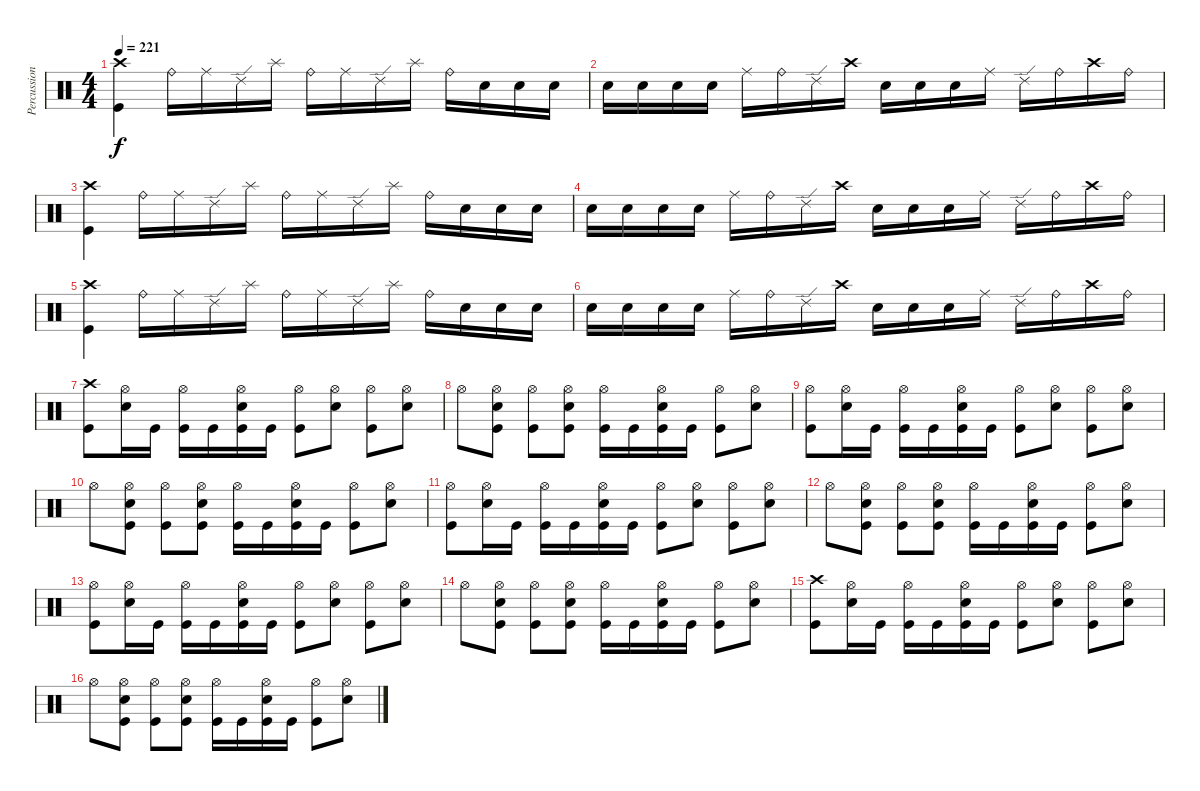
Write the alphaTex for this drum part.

\track ("Percussion" "Percussion") {instrument percussion}
\staff {score}
\articulation defaults
\ts (4 4)
\tempo 221
\clef neutral
\ks c
("Crash high (hit)" "Kick (hit)").4{dy f} "Ride (bell)".16 "Ride (middle)".16 "Ride (edge) 2".16 "Splash (hit)".16 "Ride (bell)".16 "Ride (middle)".16 "Ride (edge) 2".16 "Splash (hit)".16 "Ride (bell)".16 "Electric Snare (hit)".16 "Electric Snare (hit)".16 "Electric Snare (hit)".16 |
"Electric Snare (hit)".16 "Electric Snare (hit)".16 "Electric Snare (hit)".16 "Electric Snare (hit)".16 "Ride (middle)".16 "Ride (bell)".16 "Ride (edge) 2".16 "Crash high (hit)".16 "Electric Snare (hit)".16 "Electric Snare (hit)".16 "Electric Snare (hit)".16 "Ride (middle)".16 "Ride (edge) 2".16 "Ride (bell)".16 "Crash high (hit)".16 "Ride (bell)".16 |
("Crash high (hit)" "Kick (hit)").4 "Ride (bell)".16 "Ride (middle)".16 "Ride (edge) 2".16 "Splash (hit)".16 "Ride (bell)".16 "Ride (middle)".16 "Ride (edge) 2".16 "Splash (hit)".16 "Ride (bell)".16 "Electric Snare (hit)".16 "Electric Snare (hit)".16 "Electric Snare (hit)".16 |
"Electric Snare (hit)".16 "Electric Snare (hit)".16 "Electric Snare (hit)".16 "Electric Snare (hit)".16 "Ride (middle)".16 "Ride (bell)".16 "Ride (edge) 2".16 "Crash high (hit)".16 "Electric Snare (hit)".16 "Electric Snare (hit)".16 "Electric Snare (hit)".16 "Ride (middle)".16 "Ride (edge) 2".16 "Ride (bell)".16 "Crash high (hit)".16 "Ride (bell)".16 |
("Crash high (hit)" "Kick (hit)").4 "Ride (bell)".16 "Ride (middle)".16 "Ride (edge) 2".16 "Splash (hit)".16 "Ride (bell)".16 "Ride (middle)".16 "Ride (edge) 2".16 "Splash (hit)".16 "Ride (bell)".16 "Electric Snare (hit)".16 "Electric Snare (hit)".16 "Electric Snare (hit)".16 |
"Electric Snare (hit)".16 "Electric Snare (hit)".16 "Electric Snare (hit)".16 "Electric Snare (hit)".16 "Ride (middle)".16 "Ride (bell)".16 "Ride (edge) 2".16 "Crash high (hit)".16 "Electric Snare (hit)".16 "Electric Snare (hit)".16 "Electric Snare (hit)".16 "Ride (middle)".16 "Ride (edge) 2".16 "Ride (bell)".16 "Crash high (hit)".16 "Ride (bell)".16 |
("Crash high (hit)" "Kick (hit)").8 ("Hi-Hat (open)" "Electric Snare (hit)").16 "Kick (hit)".16 ("Hi-Hat (open)" "Kick (hit)").16 "Kick (hit)".16 ("Hi-Hat (open)" "Electric Snare (hit)" "Kick (hit)").16 "Kick (hit)".16 ("Hi-Hat (open)" "Kick (hit)").8 ("Hi-Hat (open)" "Electric Snare (hit)").8 ("Hi-Hat (open)" "Kick (hit)").8 ("Hi-Hat (open)" "Electric Snare (hit)").8 |
"Hi-Hat (open)".8 ("Hi-Hat (open)" "Electric Snare (hit)" "Kick (hit)").8 ("Hi-Hat (open)" "Kick (hit)").8 ("Hi-Hat (open)" "Electric Snare (hit)" "Kick (hit)").8 ("Hi-Hat (open)" "Kick (hit)").16 "Kick (hit)".16 ("Hi-Hat (open)" "Electric Snare (hit)" "Kick (hit)").16 "Kick (hit)".16 ("Hi-Hat (open)" "Kick (hit)").8 ("Hi-Hat (open)" "Electric Snare (hit)").8 |
("Hi-Hat (open)" "Kick (hit)").8 ("Hi-Hat (open)" "Electric Snare (hit)").16 "Kick (hit)".16 ("Hi-Hat (open)" "Kick (hit)").16 "Kick (hit)".16 ("Hi-Hat (open)" "Electric Snare (hit)" "Kick (hit)").16 "Kick (hit)".16 ("Hi-Hat (open)" "Kick (hit)").8 ("Hi-Hat (open)" "Electric Snare (hit)").8 ("Hi-Hat (open)" "Kick (hit)").8 ("Hi-Hat (open)" "Electric Snare (hit)").8 |
"Hi-Hat (open)".8 ("Hi-Hat (open)" "Electric Snare (hit)" "Kick (hit)").8 ("Hi-Hat (open)" "Kick (hit)").8 ("Hi-Hat (open)" "Electric Snare (hit)" "Kick (hit)").8 ("Hi-Hat (open)" "Kick (hit)").16 "Kick (hit)".16 ("Hi-Hat (open)" "Electric Snare (hit)" "Kick (hit)").16 "Kick (hit)".16 ("Hi-Hat (open)" "Kick (hit)").8 ("Hi-Hat (open)" "Electric Snare (hit)").8 |
("Hi-Hat (open)" "Kick (hit)").8 ("Hi-Hat (open)" "Electric Snare (hit)").16 "Kick (hit)".16 ("Hi-Hat (open)" "Kick (hit)").16 "Kick (hit)".16 ("Hi-Hat (open)" "Electric Snare (hit)" "Kick (hit)").16 "Kick (hit)".16 ("Hi-Hat (open)" "Kick (hit)").8 ("Hi-Hat (open)" "Electric Snare (hit)").8 ("Hi-Hat (open)" "Kick (hit)").8 ("Hi-Hat (open)" "Electric Snare (hit)").8 |
"Hi-Hat (open)".8 ("Hi-Hat (open)" "Electric Snare (hit)" "Kick (hit)").8 ("Hi-Hat (open)" "Kick (hit)").8 ("Hi-Hat (open)" "Electric Snare (hit)" "Kick (hit)").8 ("Hi-Hat (open)" "Kick (hit)").16 "Kick (hit)".16 ("Hi-Hat (open)" "Electric Snare (hit)" "Kick (hit)").16 "Kick (hit)".16 ("Hi-Hat (open)" "Kick (hit)").8 ("Hi-Hat (open)" "Electric Snare (hit)").8 |
("Hi-Hat (open)" "Kick (hit)").8 ("Hi-Hat (open)" "Electric Snare (hit)").16 "Kick (hit)".16 ("Hi-Hat (open)" "Kick (hit)").16 "Kick (hit)".16 ("Hi-Hat (open)" "Electric Snare (hit)" "Kick (hit)").16 "Kick (hit)".16 ("Hi-Hat (open)" "Kick (hit)").8 ("Hi-Hat (open)" "Electric Snare (hit)").8 ("Hi-Hat (open)" "Kick (hit)").8 ("Hi-Hat (open)" "Electric Snare (hit)").8 |
"Hi-Hat (open)".8 ("Hi-Hat (open)" "Electric Snare (hit)" "Kick (hit)").8 ("Hi-Hat (open)" "Kick (hit)").8 ("Hi-Hat (open)" "Electric Snare (hit)" "Kick (hit)").8 ("Hi-Hat (open)" "Kick (hit)").16 "Kick (hit)".16 ("Hi-Hat (open)" "Electric Snare (hit)" "Kick (hit)").16 "Kick (hit)".16 ("Hi-Hat (open)" "Kick (hit)").8 ("Hi-Hat (open)" "Electric Snare (hit)").8 |
("Crash high (hit)" "Kick (hit)").8 ("Hi-Hat (open)" "Electric Snare (hit)").16 "Kick (hit)".16 ("Hi-Hat (open)" "Kick (hit)").16 "Kick (hit)".16 ("Hi-Hat (open)" "Electric Snare (hit)" "Kick (hit)").16 "Kick (hit)".16 ("Hi-Hat (open)" "Kick (hit)").8 ("Hi-Hat (open)" "Electric Snare (hit)").8 ("Hi-Hat (open)" "Kick (hit)").8 ("Hi-Hat (open)" "Electric Snare (hit)").8 |
"Hi-Hat (open)".8 ("Hi-Hat (open)" "Electric Snare (hit)" "Kick (hit)").8 ("Hi-Hat (open)" "Kick (hit)").8 ("Hi-Hat (open)" "Electric Snare (hit)" "Kick (hit)").8 ("Hi-Hat (open)" "Kick (hit)").16 "Kick (hit)".16 ("Hi-Hat (open)" "Electric Snare (hit)" "Kick (hit)").16 "Kick (hit)".16 ("Hi-Hat (open)" "Kick (hit)").8 ("Hi-Hat (open)" "Electric Snare (hit)").8
